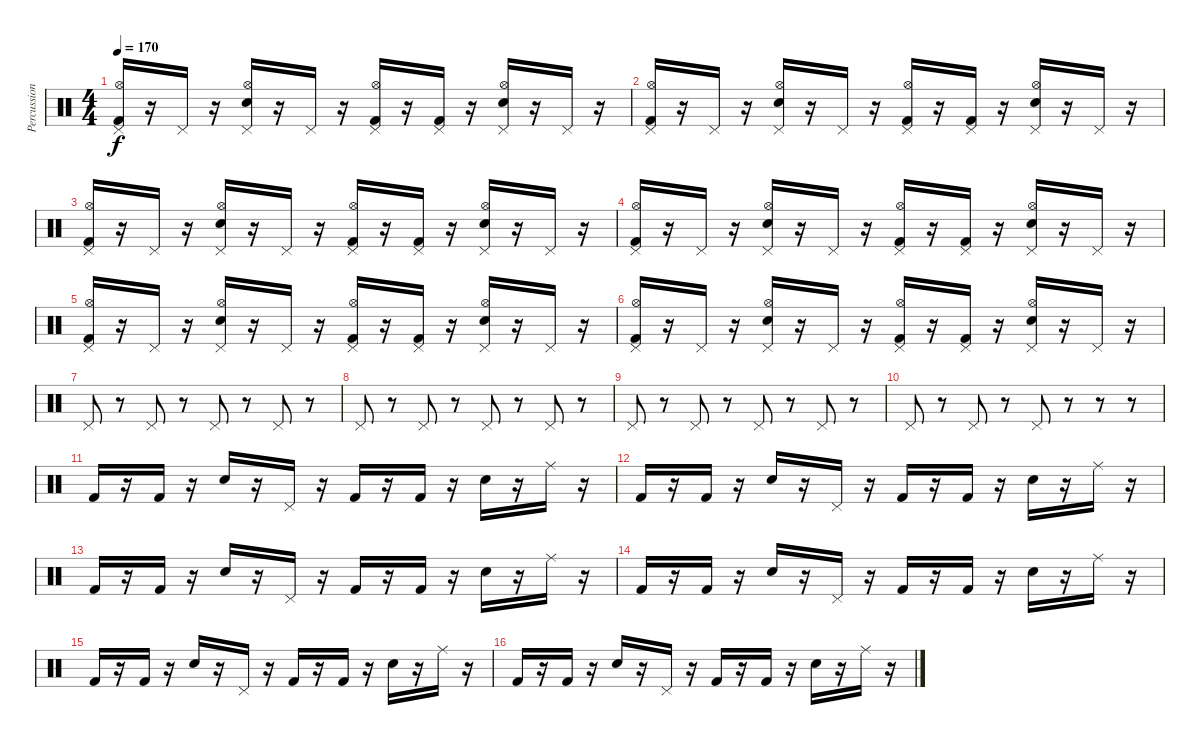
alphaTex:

\track ("Percussion" "Percussion") {instrument percussion}
\staff {score}
\articulation defaults
\ts (4 4)
\tempo 170
\clef neutral
\ks c
("Pedal Hi-Hat (hit)" "Hi-Hat (open)" "Kick (hit) 2").16{dy f} r.16 "Pedal Hi-Hat (hit)".16 r.16 ("Pedal Hi-Hat (hit)" "Hi-Hat (open)" "Snare (hit) 2").16 r.16 "Pedal Hi-Hat (hit)".16 r.16 ("Pedal Hi-Hat (hit)" "Hi-Hat (open)" "Kick (hit) 2").16 r.16 ("Pedal Hi-Hat (hit)" "Kick (hit) 2").16 r.16 ("Pedal Hi-Hat (hit)" "Hi-Hat (open)" "Snare (hit) 2").16 r.16 "Pedal Hi-Hat (hit)".16 r.16 |
("Pedal Hi-Hat (hit)" "Hi-Hat (open)" "Kick (hit) 2").16 r.16 "Pedal Hi-Hat (hit)".16 r.16 ("Pedal Hi-Hat (hit)" "Hi-Hat (open)" "Snare (hit) 2").16 r.16 "Pedal Hi-Hat (hit)".16 r.16 ("Pedal Hi-Hat (hit)" "Hi-Hat (open)" "Kick (hit) 2").16 r.16 ("Pedal Hi-Hat (hit)" "Kick (hit) 2").16 r.16 ("Pedal Hi-Hat (hit)" "Hi-Hat (open)" "Snare (hit) 2").16 r.16 "Pedal Hi-Hat (hit)".16 r.16 |
("Pedal Hi-Hat (hit)" "Hi-Hat (open)" "Kick (hit) 2").16 r.16 "Pedal Hi-Hat (hit)".16 r.16 ("Pedal Hi-Hat (hit)" "Hi-Hat (open)" "Snare (hit) 2").16 r.16 "Pedal Hi-Hat (hit)".16 r.16 ("Pedal Hi-Hat (hit)" "Hi-Hat (open)" "Kick (hit) 2").16 r.16 ("Pedal Hi-Hat (hit)" "Kick (hit) 2").16 r.16 ("Pedal Hi-Hat (hit)" "Hi-Hat (open)" "Snare (hit) 2").16 r.16 "Pedal Hi-Hat (hit)".16 r.16 |
("Pedal Hi-Hat (hit)" "Hi-Hat (open)" "Kick (hit) 2").16 r.16 "Pedal Hi-Hat (hit)".16 r.16 ("Pedal Hi-Hat (hit)" "Hi-Hat (open)" "Snare (hit) 2").16 r.16 "Pedal Hi-Hat (hit)".16 r.16 ("Pedal Hi-Hat (hit)" "Hi-Hat (open)" "Kick (hit) 2").16 r.16 ("Pedal Hi-Hat (hit)" "Kick (hit) 2").16 r.16 ("Pedal Hi-Hat (hit)" "Hi-Hat (open)" "Snare (hit) 2").16 r.16 "Pedal Hi-Hat (hit)".16 r.16 |
("Pedal Hi-Hat (hit)" "Hi-Hat (open)" "Kick (hit) 2").16 r.16 "Pedal Hi-Hat (hit)".16 r.16 ("Pedal Hi-Hat (hit)" "Hi-Hat (open)" "Snare (hit) 2").16 r.16 "Pedal Hi-Hat (hit)".16 r.16 ("Pedal Hi-Hat (hit)" "Hi-Hat (open)" "Kick (hit) 2").16 r.16 ("Pedal Hi-Hat (hit)" "Kick (hit) 2").16 r.16 ("Pedal Hi-Hat (hit)" "Hi-Hat (open)" "Snare (hit) 2").16 r.16 "Pedal Hi-Hat (hit)".16 r.16 |
("Pedal Hi-Hat (hit)" "Hi-Hat (open)" "Kick (hit) 2").16 r.16 "Pedal Hi-Hat (hit)".16 r.16 ("Pedal Hi-Hat (hit)" "Hi-Hat (open)" "Snare (hit) 2").16 r.16 "Pedal Hi-Hat (hit)".16 r.16 ("Pedal Hi-Hat (hit)" "Hi-Hat (open)" "Kick (hit) 2").16 r.16 ("Pedal Hi-Hat (hit)" "Kick (hit) 2").16 r.16 ("Pedal Hi-Hat (hit)" "Hi-Hat (open)" "Snare (hit) 2").16 r.16 "Pedal Hi-Hat (hit)".16 r.16 |
"Pedal Hi-Hat (hit)".8 r.8 "Pedal Hi-Hat (hit)".8 r.8 "Pedal Hi-Hat (hit)".8 r.8 "Pedal Hi-Hat (hit)".8 r.8 |
"Pedal Hi-Hat (hit)".8 r.8 "Pedal Hi-Hat (hit)".8 r.8 "Pedal Hi-Hat (hit)".8 r.8 "Pedal Hi-Hat (hit)".8 r.8 |
"Pedal Hi-Hat (hit)".8 r.8 "Pedal Hi-Hat (hit)".8 r.8 "Pedal Hi-Hat (hit)".8 r.8 "Pedal Hi-Hat (hit)".8 r.8 |
"Pedal Hi-Hat (hit)".8 r.8 "Pedal Hi-Hat (hit)".8 r.8 "Pedal Hi-Hat (hit)".8 r.8 r.8 r.8 |
"Kick (hit) 2".16 r.16 "Kick (hit) 2".16 r.16 "Snare (hit) 2".16 r.16 "Pedal Hi-Hat (hit)".16 r.16 "Kick (hit) 2".16 r.16 "Kick (hit) 2".16 r.16 "Snare (hit) 2".16 r.16 "Ride (middle)".16 r.16 |
"Kick (hit) 2".16 r.16 "Kick (hit) 2".16 r.16 "Snare (hit) 2".16 r.16 "Pedal Hi-Hat (hit)".16 r.16 "Kick (hit) 2".16 r.16 "Kick (hit) 2".16 r.16 "Snare (hit) 2".16 r.16 "Ride (middle)".16 r.16 |
"Kick (hit) 2".16 r.16 "Kick (hit) 2".16 r.16 "Snare (hit) 2".16 r.16 "Pedal Hi-Hat (hit)".16 r.16 "Kick (hit) 2".16 r.16 "Kick (hit) 2".16 r.16 "Snare (hit) 2".16 r.16 "Ride (middle)".16 r.16 |
"Kick (hit) 2".16 r.16 "Kick (hit) 2".16 r.16 "Snare (hit) 2".16 r.16 "Pedal Hi-Hat (hit)".16 r.16 "Kick (hit) 2".16 r.16 "Kick (hit) 2".16 r.16 "Snare (hit) 2".16 r.16 "Ride (middle)".16 r.16 |
"Kick (hit) 2".16 r.16 "Kick (hit) 2".16 r.16 "Snare (hit) 2".16 r.16 "Pedal Hi-Hat (hit)".16 r.16 "Kick (hit) 2".16 r.16 "Kick (hit) 2".16 r.16 "Snare (hit) 2".16 r.16 "Ride (middle)".16 r.16 |
"Kick (hit) 2".16 r.16 "Kick (hit) 2".16 r.16 "Snare (hit) 2".16 r.16 "Pedal Hi-Hat (hit)".16 r.16 "Kick (hit) 2".16 r.16 "Kick (hit) 2".16 r.16 "Snare (hit) 2".16 r.16 "Ride (middle)".16 r.16
